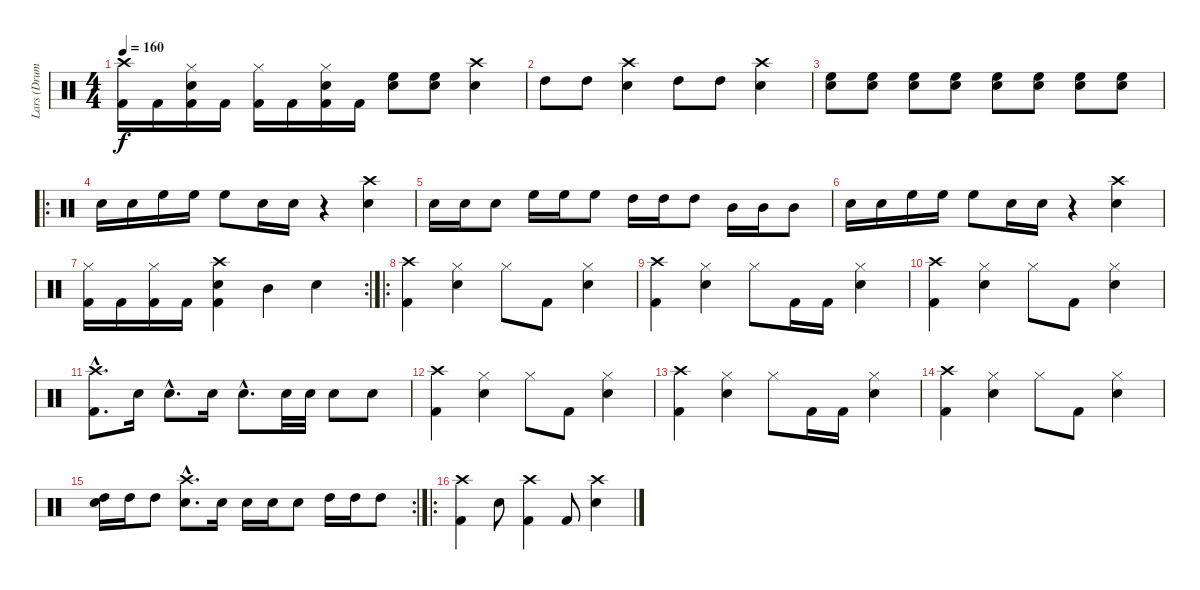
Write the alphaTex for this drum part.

\track ("Lars (Drums)" "Lars (Drum") {instrument percussion}
\staff {score}
\articulation defaults
\ts (4 4)
\tempo 160
\clef neutral
\ks c
("Crash high (hit)" "Kick (hit) 2").16{dy f} "Kick (hit) 2".16 ("Hi-Hat (closed)" "Kick (hit) 2" "Snare (hit) 2").16 "Kick (hit) 2".16 ("Hi-Hat (closed)" "Kick (hit) 2").16 "Kick (hit) 2".16 ("Hi-Hat (closed)" "Kick (hit) 2" "Snare (hit) 2").16 "Kick (hit) 2".16 ("Snare (hit) 2" "High Floor Tom (hit)").8 ("Snare (hit) 2" "High Floor Tom (hit)").8 ("Crash high (hit)" "Snare (hit) 2").4 |
"High Tom (hit)".8 "High Tom (hit)".8 ("Crash high (hit)" "Snare (hit) 2").4 "High Tom (hit)".8 "High Tom (hit)".8 ("Crash high (hit)" "Snare (hit) 2").4 |
("Snare (hit) 2" "High Floor Tom (hit)").8 ("Snare (hit) 2" "High Floor Tom (hit)").8 ("Snare (hit) 2" "High Floor Tom (hit)").8 ("Snare (hit) 2" "High Floor Tom (hit)").8 ("Snare (hit) 2" "High Floor Tom (hit)").8 ("Snare (hit) 2" "High Floor Tom (hit)").8 ("Snare (hit) 2" "High Floor Tom (hit)").8 ("Snare (hit) 2" "High Floor Tom (hit)").8 |
\ro "Snare (hit) 2".16 "Snare (hit) 2".16 "High Floor Tom (hit)".16 "High Floor Tom (hit)".16 "High Floor Tom (hit)".8 "Snare (hit) 2".16 "Snare (hit) 2".16
r.4 ("Crash high (hit)" "Snare (hit) 2").4 |
"Snare (hit) 2".16 "Snare (hit) 2".16 "Snare (hit) 2".8 "High Floor Tom (hit)".16 "High Floor Tom (hit)".16 "High Floor Tom (hit)".8 "High Tom (hit)".16 "High Tom (hit)".16 "High Tom (hit)".8 "Mid Tom (hit)".16 "Mid Tom (hit)".16 "Mid Tom (hit)".8 |
"Snare (hit) 2".16 "Snare (hit) 2".16 "High Floor Tom (hit)".16 "High Floor Tom (hit)".16 "High Floor Tom (hit)".8 "Snare (hit) 2".16 "Snare (hit) 2".16 r.4 ("Crash high (hit)" "Snare (hit) 2").4 |
\rc 2
("Hi-Hat (closed)" "Kick (hit) 2").16 "Kick (hit) 2".16 ("Hi-Hat (closed)" "Kick (hit) 2").16 "Kick (hit) 2".16 ("Crash high (hit)" "Kick (hit) 2" "Snare (hit) 2").4 "Mid Tom (hit)".4 "Snare (hit) 2".4 |
\ro
("Crash high (hit)" "Kick (hit) 2").4 ("Hi-Hat (closed)" "Snare (hit) 2").4 "Hi-Hat (closed)".8 "Kick (hit) 2".8 ("Hi-Hat (closed)" "Snare (hit) 2").4 |
("Crash high (hit)" "Kick (hit) 2").4 ("Hi-Hat (closed)" "Snare (hit) 2").4 "Hi-Hat (closed)".8 "Kick (hit) 2".16 "Kick (hit) 2".16 ("Hi-Hat (closed)" "Snare (hit) 2").4 |
("Crash high (hit)" "Kick (hit) 2").4 ("Hi-Hat (closed)" "Snare (hit) 2").4 "Hi-Hat (closed)".8 "Kick (hit) 2".8 ("Hi-Hat (closed)" "Snare (hit) 2").4 |
("Crash high (hit)"{hac} "Kick (hit) 2"{hac}).8{d} "Snare (hit) 2".16 "Snare (hit) 2"{hac}.8{d} "Snare (hit) 2".16 "Snare (hit) 2"{hac}.8{d} "Snare (hit) 2".32 "Snare (hit) 2".32 "Snare (hit) 2".8 "Snare (hit) 2".8 |
("Crash high (hit)" "Kick (hit) 2").4 ("Hi-Hat (closed)" "Snare (hit) 2").4 "Hi-Hat (closed)".8 "Kick (hit) 2".8 ("Hi-Hat (closed)" "Snare (hit) 2").4 |
("Crash high (hit)" "Kick (hit) 2").4 ("Hi-Hat (closed)" "Snare (hit) 2").4 "Hi-Hat (closed)".8 "Kick (hit) 2".16 "Kick (hit) 2".16 ("Hi-Hat (closed)" "Snare (hit) 2").4 |
("Crash high (hit)" "Kick (hit) 2").4 ("Hi-Hat (closed)" "Snare (hit) 2").4 "Hi-Hat (closed)".8 "Kick (hit) 2".8 ("Hi-Hat (closed)" "Snare (hit) 2").4 |
\rc 2
("High Tom (hit)" "Snare (hit) 2").16 "High Tom (hit)".16 "High Tom (hit)".8 ("Crash high (hit)"{hac} "Snare (hit) 2"{hac}).8{d} "Snare (hit) 2".16 "Snare (hit) 2".16 "Snare (hit) 2".16 "Snare (hit) 2".8 "High Tom (hit)".16 "High Tom (hit)".16 "High Tom (hit)".8 |
\ro
("Crash high (hit)" "Kick (hit) 2").4 "Snare (hit) 2".8 ("Crash high (hit)" "Kick (hit) 2").4 "Kick (hit) 2".8 ("Crash high (hit)" "Snare (hit) 2").4
